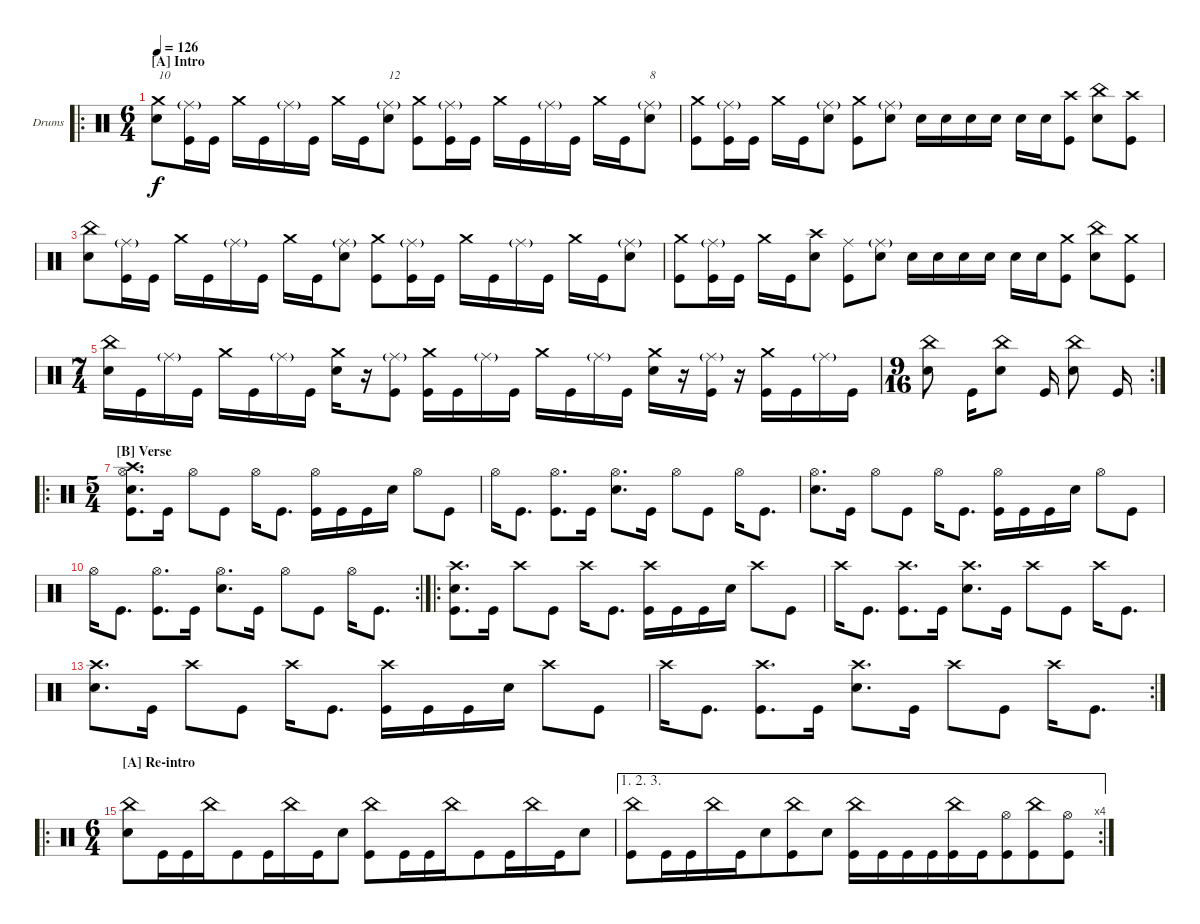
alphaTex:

\bracketExtendMode groupsimilarinstruments
\firstSystemTrackNameOrientation horizontal
\otherSystemsTrackNameOrientation horizontal
\defaultBarNumberDisplay FirstOfSystem
\track ("Drumkit" "Drums") {instrument percussion}
\staff {score}
\articulation defaults
\ro
\ts (6 4)
\section ("A" "Intro")
\tempo 126
\clef neutral
\ks c
("Snare (hit) 2" "Crash medium (hit)").8{txt "10" dy f} ("Kick (hit)" "Ride (middle)"{g}).16 "Kick (hit)".16 "Crash medium (hit)".16 "Kick (hit)".16 "Ride (middle)"{g}.16 "Kick (hit)".16 "Crash medium (hit)".16 "Kick (hit)".16 ("Snare (hit) 2" "Ride (middle)"{g}).8{txt "12"} ("Kick (hit)" "Crash medium (hit)").8 ("Kick (hit)" "Ride (middle)"{g}).16 "Kick (hit)".16 "Crash medium (hit)".16 "Kick (hit)".16 "Ride (middle)"{g}.16 "Kick (hit)".16 "Crash medium (hit)".16 "Kick (hit)".16 ("Snare (hit) 2" "Ride (middle)"{g}).8{txt "8"} |
("Kick (hit)" "Crash medium (hit)").8 ("Kick (hit)" "Ride (middle)"{g}).16 "Kick (hit)".16 "Crash medium (hit)".16 "Kick (hit)".16 ("Snare (hit) 2" "Ride (middle)"{g}).8 ("Kick (hit)" "Crash medium (hit)").8 ("Snare (hit) 2" "Ride (middle)"{g}).8 "Snare (hit) 2".16 "Snare (hit) 2".16 "Snare (hit) 2".16 "Snare (hit) 2".16 "Snare (hit) 2".16 "Snare (hit) 2".16 ("Kick (hit)" "Crash high (hit)").8 ("Snare (hit) 2" "China (hit)").8 ("Kick (hit)" "Crash high (hit)").8 |
("Snare (hit) 2" "China (hit)").8 ("Kick (hit)" "Ride (middle)"{g}).16 "Kick (hit)".16 "Crash medium (hit)".16 "Kick (hit)".16 "Ride (middle)"{g}.16 "Kick (hit)".16 "Crash medium (hit)".16 "Kick (hit)".16 ("Snare (hit) 2" "Ride (middle)"{g}).8 ("Kick (hit)" "Crash medium (hit)").8 ("Kick (hit)" "Ride (middle)"{g}).16 "Kick (hit)".16 "Crash medium (hit)".16 "Kick (hit)".16 "Ride (middle)"{g}.16 "Kick (hit)".16 "Crash medium (hit)".16 "Kick (hit)".16 ("Snare (hit) 2" "Ride (middle)"{g}).8 |
("Kick (hit)" "Crash medium (hit)").8 ("Kick (hit)" "Ride (middle)"{g}).16 "Kick (hit)".16 "Crash medium (hit)".16 "Kick (hit)".16 ("Snare (hit) 2" "Crash high (hit)").8 ("Kick (hit)" "Ride (middle)").8 ("Snare (hit) 2" "Ride (middle)"{g}).8 "Snare (hit) 2".16 "Snare (hit) 2".16 "Snare (hit) 2".16 "Snare (hit) 2".16 "Snare (hit) 2".16 "Snare (hit) 2".16 ("Kick (hit)" "Crash medium (hit)").8 ("Snare (hit) 2" "China (hit)").8 ("Kick (hit)" "Crash medium (hit)").8 |
\ts (7 4)
("Snare (hit) 2" "China (hit)").16 "Kick (hit)".16 "Ride (middle)"{g}.16 "Kick (hit)".16 "Crash medium (hit)".16 "Kick (hit)".16 "Ride (middle)"{g}.16 "Kick (hit)".16 ("Snare (hit) 2" "Crash medium (hit)").16 r.16 ("Kick (hit)" "Ride (middle)"{g}).8 ("Kick (hit)" "Crash medium (hit)").16 "Kick (hit)".16 "Ride (middle)"{g}.16 "Kick (hit)".16 "Crash medium (hit)".16 "Kick (hit)".16 "Ride (middle)"{g}.16 "Kick (hit)".16 ("Snare (hit) 2" "Crash medium (hit)").16 r.16 ("Kick (hit)" "Ride (middle)"{g}).16 r.16 ("Kick (hit)" "Crash medium (hit)").16 "Kick (hit)".16 "Ride (middle)"{g}.16 "Kick (hit)".16 |
\rc 2
\ts (9 16)
\beaming (8 1 1 1 1)
("Snare (hit) 2" "China (hit)").8 "Kick (hit)".16 ("Snare (hit) 2" "China (hit)").8 "Kick (hit)".16 ("Snare (hit) 2" "China (hit)").8 "Kick (hit)".16 |
\ro
\ts (5 4)
\beaming (8 2 2 2 2 2)
\section ("B" "Verse")
("Hi-Hat (open)" "Kick (hit)" "Crash high (hit)" "Snare (hit) 2").8{d} "Kick (hit)".16 "Hi-Hat (open)".8 "Kick (hit)".8 "Hi-Hat (open)".16 "Kick (hit)".8{d} ("Hi-Hat (open)" "Kick (hit)").16 "Kick (hit)".16 "Kick (hit)".16 "Snare (hit) 2".16 "Hi-Hat (open)".8 "Kick (hit)".8 |
"Hi-Hat (open)".16 "Kick (hit)".8{d} ("Hi-Hat (open)" "Kick (hit)").8{d} "Kick (hit)".16 ("Hi-Hat (open)" "Snare (hit) 2").8{d} "Kick (hit)".16 "Hi-Hat (open)".8 "Kick (hit)".8 "Hi-Hat (open)".16 "Kick (hit)".8{d} |
("Hi-Hat (open)" "Snare (hit) 2").8{d} "Kick (hit)".16 "Hi-Hat (open)".8 "Kick (hit)".8 "Hi-Hat (open)".16 "Kick (hit)".8{d} ("Hi-Hat (open)" "Kick (hit)").16 "Kick (hit)".16 "Kick (hit)".16 "Snare (hit) 2".16 "Hi-Hat (open)".8 "Kick (hit)".8 |
\rc 2 "Hi-Hat (open)".16 "Kick (hit)".8{d}
("Hi-Hat (open)" "Kick (hit)").8{d} "Kick (hit)".16 ("Hi-Hat (open)" "Snare (hit) 2").8{d} "Kick (hit)".16 "Hi-Hat (open)".8 "Kick (hit)".8 "Hi-Hat (open)".16 "Kick (hit)".8{d} |
\ro
("Kick (hit)" "Snare (hit) 2" "Crash high (hit)").8{d} "Kick (hit)".16 "Crash high (hit)".8 "Kick (hit)".8 "Crash high (hit)".16 "Kick (hit)".8{d} ("Kick (hit)" "Crash high (hit)").16 "Kick (hit)".16 "Kick (hit)".16 "Snare (hit) 2".16 "Crash high (hit)".8 "Kick (hit)".8 |
"Crash high (hit)".16 "Kick (hit)".8{d} ("Kick (hit)" "Crash high (hit)").8{d} "Kick (hit)".16 ("Snare (hit) 2" "Crash high (hit)").8{d} "Kick (hit)".16 "Crash high (hit)".8 "Kick (hit)".8 "Crash high (hit)".16 "Kick (hit)".8{d} |
("Snare (hit) 2" "Crash high (hit)").8{d} "Kick (hit)".16 "Crash high (hit)".8 "Kick (hit)".8 "Crash high (hit)".16 "Kick (hit)".8{d} ("Kick (hit)" "Crash high (hit)").16 "Kick (hit)".16 "Kick (hit)".16 "Snare (hit) 2".16 "Crash high (hit)".8 "Kick (hit)".8 |
\rc 2 "Crash high (hit)".16 "Kick (hit)".8{d}
("Kick (hit)" "Crash high (hit)").8{d} "Kick (hit)".16 ("Snare (hit) 2" "Crash high (hit)").8{d} "Kick (hit)".16 "Crash high (hit)".8 "Kick (hit)".8 "Crash high (hit)".16 "Kick (hit)".8{d} |
\ro
\ts (6 4)
\beaming (8 6 6)
\section ("A" "Re-intro")
("China (hit)" "Snare (hit) 2").8 "Kick (hit)".16 "Kick (hit)".16 "China (hit)".16 "Kick (hit)".8 "Kick (hit)".16 "China (hit)".16 "Kick (hit)".16 "Snare (hit) 2".8 ("China (hit)" "Kick (hit)").8 "Kick (hit)".16 "Kick (hit)".16 "China (hit)".16 "Kick (hit)".8 "Kick (hit)".16 "China (hit)".16 "Kick (hit)".16 "Snare (hit) 2".8 |
\ae (1 2 3)
\rc 4
("China (hit)" "Kick (hit)").8 "Kick (hit)".16 "Kick (hit)".16 "China (hit)".16 "Kick (hit)".16 "Snare (hit) 2".8 ("China (hit)" "Kick (hit)").8 "Snare (hit) 2".8 ("Kick (hit)" "China (hit)").16 "Kick (hit)".16 "Kick (hit)".16 "Kick (hit)".16 ("Kick (hit)" "China (hit)").16 "Kick (hit)".16 ("Kick (hit)" "Hi-Hat (open)").8 ("Kick (hit)" "China (hit)").8 ("Kick (hit)" "Hi-Hat (open)").8
